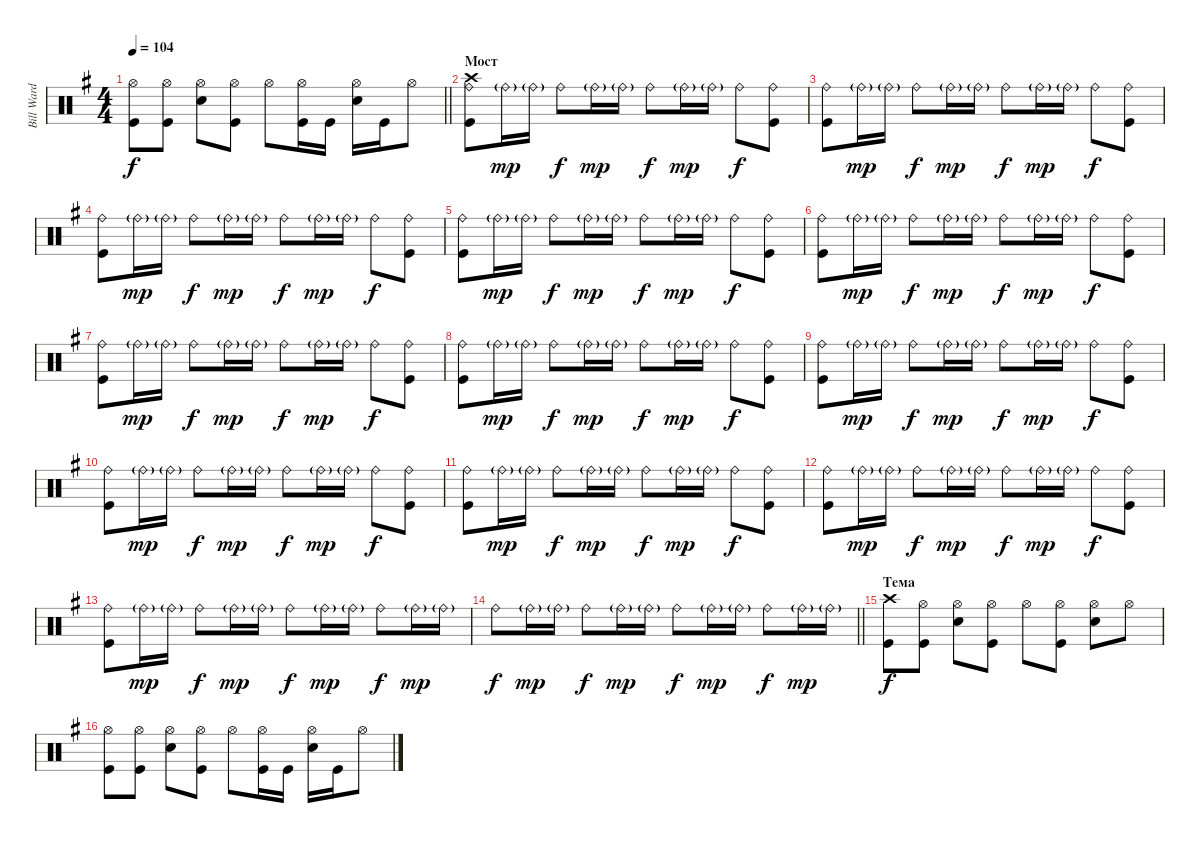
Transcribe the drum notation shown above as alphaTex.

\track ("Bill Ward" "Bill Ward") {instrument percussion}
\staff {score}
\articulation defaults
\ts (4 4)
\tempo 104
\clef neutral
\barLineRight lightlight
\ks g
("Kick (hit)" "Hi-Hat (open)").8{dy f} ("Kick (hit)" "Hi-Hat (open)").8 ("Snare (hit) 2" "Hi-Hat (open)").8 ("Kick (hit)" "Hi-Hat (open)").8 "Hi-Hat (open)".8 ("Kick (hit)" "Hi-Hat (open)").16 "Kick (hit)".16 ("Snare (hit) 2" "Hi-Hat (open)").16 "Kick (hit)".16 "Hi-Hat (open)".8 |
\section ("" "Мост")
("Ride (bell)" "Kick (hit)" "Crash high (hit)").8 "Ride (bell)"{g}.16{dy mp} "Ride (bell)"{g}.16 "Ride (bell)".8{dy f} "Ride (bell)"{g}.16{dy mp} "Ride (bell)"{g}.16 "Ride (bell)".8{dy f} "Ride (bell)"{g}.16{dy mp} "Ride (bell)"{g}.16 "Ride (bell)".8{dy f} ("Ride (bell)" "Kick (hit)").8 |
("Ride (bell)" "Kick (hit)").8 "Ride (bell)"{g}.16{dy mp} "Ride (bell)"{g}.16 "Ride (bell)".8{dy f} "Ride (bell)"{g}.16{dy mp} "Ride (bell)"{g}.16 "Ride (bell)".8{dy f} "Ride (bell)"{g}.16{dy mp} "Ride (bell)"{g}.16 "Ride (bell)".8{dy f} ("Ride (bell)" "Kick (hit)").8 |
("Ride (bell)" "Kick (hit)").8 "Ride (bell)"{g}.16{dy mp} "Ride (bell)"{g}.16 "Ride (bell)".8{dy f} "Ride (bell)"{g}.16{dy mp} "Ride (bell)"{g}.16 "Ride (bell)".8{dy f} "Ride (bell)"{g}.16{dy mp} "Ride (bell)"{g}.16 "Ride (bell)".8{dy f} ("Ride (bell)" "Kick (hit)").8 |
("Ride (bell)" "Kick (hit)").8 "Ride (bell)"{g}.16{dy mp} "Ride (bell)"{g}.16 "Ride (bell)".8{dy f} "Ride (bell)"{g}.16{dy mp} "Ride (bell)"{g}.16 "Ride (bell)".8{dy f} "Ride (bell)"{g}.16{dy mp} "Ride (bell)"{g}.16 "Ride (bell)".8{dy f} ("Ride (bell)" "Kick (hit)").8 |
("Ride (bell)" "Kick (hit)").8 "Ride (bell)"{g}.16{dy mp} "Ride (bell)"{g}.16 "Ride (bell)".8{dy f} "Ride (bell)"{g}.16{dy mp} "Ride (bell)"{g}.16 "Ride (bell)".8{dy f} "Ride (bell)"{g}.16{dy mp} "Ride (bell)"{g}.16 "Ride (bell)".8{dy f} ("Ride (bell)" "Kick (hit)").8 |
("Ride (bell)" "Kick (hit)").8 "Ride (bell)"{g}.16{dy mp} "Ride (bell)"{g}.16 "Ride (bell)".8{dy f} "Ride (bell)"{g}.16{dy mp} "Ride (bell)"{g}.16 "Ride (bell)".8{dy f} "Ride (bell)"{g}.16{dy mp} "Ride (bell)"{g}.16 "Ride (bell)".8{dy f} ("Ride (bell)" "Kick (hit)").8 |
("Ride (bell)" "Kick (hit)").8 "Ride (bell)"{g}.16{dy mp} "Ride (bell)"{g}.16 "Ride (bell)".8{dy f} "Ride (bell)"{g}.16{dy mp} "Ride (bell)"{g}.16 "Ride (bell)".8{dy f} "Ride (bell)"{g}.16{dy mp} "Ride (bell)"{g}.16 "Ride (bell)".8{dy f} ("Ride (bell)" "Kick (hit)").8 |
("Ride (bell)" "Kick (hit)").8 "Ride (bell)"{g}.16{dy mp} "Ride (bell)"{g}.16 "Ride (bell)".8{dy f} "Ride (bell)"{g}.16{dy mp} "Ride (bell)"{g}.16 "Ride (bell)".8{dy f} "Ride (bell)"{g}.16{dy mp} "Ride (bell)"{g}.16 "Ride (bell)".8{dy f} ("Ride (bell)" "Kick (hit)").8 |
("Ride (bell)" "Kick (hit)").8 "Ride (bell)"{g}.16{dy mp} "Ride (bell)"{g}.16 "Ride (bell)".8{dy f} "Ride (bell)"{g}.16{dy mp} "Ride (bell)"{g}.16 "Ride (bell)".8{dy f} "Ride (bell)"{g}.16{dy mp} "Ride (bell)"{g}.16 "Ride (bell)".8{dy f} ("Ride (bell)" "Kick (hit)").8 |
("Ride (bell)" "Kick (hit)").8 "Ride (bell)"{g}.16{dy mp} "Ride (bell)"{g}.16 "Ride (bell)".8{dy f} "Ride (bell)"{g}.16{dy mp} "Ride (bell)"{g}.16 "Ride (bell)".8{dy f} "Ride (bell)"{g}.16{dy mp} "Ride (bell)"{g}.16 "Ride (bell)".8{dy f} ("Ride (bell)" "Kick (hit)").8 |
("Ride (bell)" "Kick (hit)").8 "Ride (bell)"{g}.16{dy mp} "Ride (bell)"{g}.16 "Ride (bell)".8{dy f} "Ride (bell)"{g}.16{dy mp} "Ride (bell)"{g}.16 "Ride (bell)".8{dy f} "Ride (bell)"{g}.16{dy mp} "Ride (bell)"{g}.16 "Ride (bell)".8{dy f} ("Ride (bell)" "Kick (hit)").8 |
("Ride (bell)" "Kick (hit)").8 "Ride (bell)"{g}.16{dy mp} "Ride (bell)"{g}.16 "Ride (bell)".8{dy f} "Ride (bell)"{g}.16{dy mp} "Ride (bell)"{g}.16 "Ride (bell)".8{dy f} "Ride (bell)"{g}.16{dy mp} "Ride (bell)"{g}.16 "Ride (bell)".8{dy f} "Ride (bell)"{g}.16{dy mp} "Ride (bell)"{g}.16 |
\barLineRight lightlight "Ride (bell)".8{dy f} "Ride (bell)"{g}.16{dy mp} "Ride (bell)"{g}.16 "Ride (bell)".8{dy f} "Ride (bell)"{g}.16{dy mp} "Ride (bell)"{g}.16 "Ride (bell)".8{dy f} "Ride (bell)"{g}.16{dy mp} "Ride (bell)"{g}.16 "Ride (bell)".8{dy f} "Ride (bell)"{g}.16{dy mp} "Ride (bell)"{g}.16
|
\section ("" "Тема")
("Crash high (hit)" "Kick (hit)").8{dy f} ("Kick (hit)" "Hi-Hat (open)").8 ("Snare (hit) 2" "Hi-Hat (open)").8 ("Kick (hit)" "Hi-Hat (open)").8 "Hi-Hat (open)".8 ("Kick (hit)" "Hi-Hat (open)").8 ("Hi-Hat (open)" "Snare (hit) 2").8 "Hi-Hat (open)".8 |
("Kick (hit)" "Hi-Hat (open)").8 ("Kick (hit)" "Hi-Hat (open)").8 ("Snare (hit) 2" "Hi-Hat (open)").8 ("Kick (hit)" "Hi-Hat (open)").8 "Hi-Hat (open)".8 ("Kick (hit)" "Hi-Hat (open)").16 "Kick (hit)".16 ("Hi-Hat (open)" "Snare (hit) 2").16 "Kick (hit)".16 "Hi-Hat (open)".8
